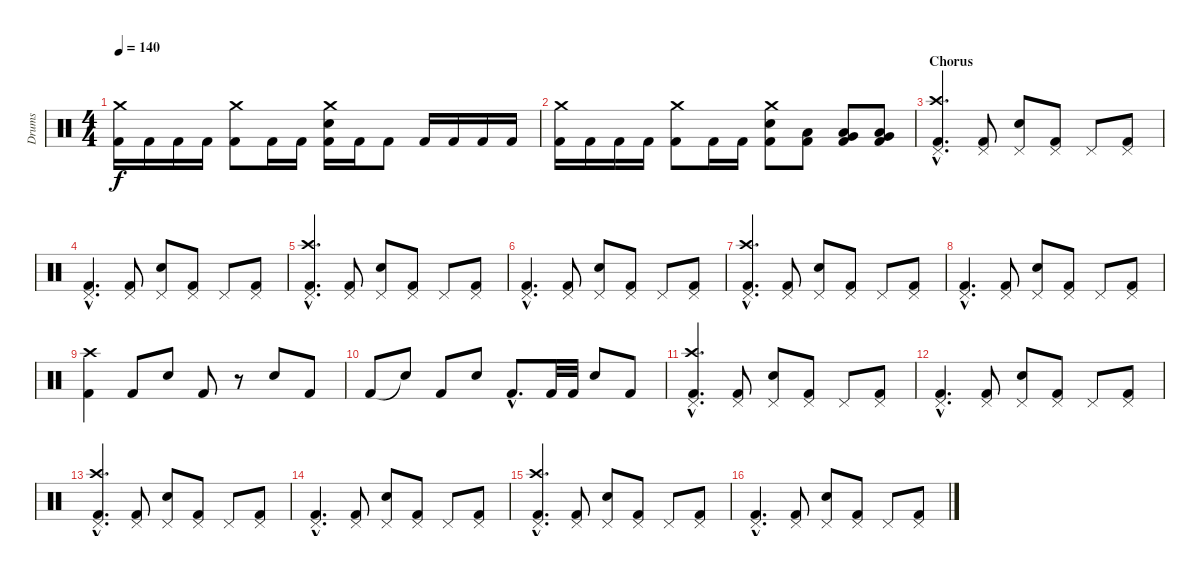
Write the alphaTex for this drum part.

\track ("Drums" "Drums") {instrument percussion}
\staff {score}
\articulation defaults
\ts (4 4)
\tempo 140
\clef neutral
\ks c
("Crash medium (hit)" "Kick (hit) 2").16{dy f} "Kick (hit) 2".16 "Kick (hit) 2".16 "Kick (hit) 2".16 ("Crash medium (hit)" "Kick (hit) 2").8 "Kick (hit) 2".16 "Kick (hit) 2".16 ("Crash medium (hit)" "Electric Snare (hit)" "Kick (hit) 2").16 "Kick (hit) 2".16 "Kick (hit) 2".8 "Kick (hit) 2".16 "Kick (hit) 2".16 "Kick (hit) 2".16 "Kick (hit) 2".16 |
("Crash medium (hit)" "Kick (hit) 2").16 "Kick (hit) 2".16 "Kick (hit) 2".16 "Kick (hit) 2".16 ("Crash medium (hit)" "Kick (hit) 2").8 "Kick (hit) 2".16 "Kick (hit) 2".16 ("Crash medium (hit)" "Electric Snare (hit)" "Kick (hit) 2").8 ("Low Floor Tom (hit)" "Kick (hit) 2").8 ("Very Low Tom (hit)" "Low Tom (hit)" "Kick (hit) 2").8 ("Very Low Tom (hit)" "Low Tom (hit)" "Kick (hit) 2").8 |
\section ("" "Chorus")
("Crash high (hit)"{hac} "Pedal Hi-Hat (hit)"{hac} "Kick (hit) 2"{hac}).4{d} ("Pedal Hi-Hat (hit)" "Kick (hit) 2").8 ("Pedal Hi-Hat (hit)" "Electric Snare (hit)").8 ("Pedal Hi-Hat (hit)" "Kick (hit) 2").8 "Pedal Hi-Hat (hit)".8 ("Pedal Hi-Hat (hit)" "Kick (hit) 2").8 |
("Pedal Hi-Hat (hit)"{hac} "Kick (hit) 2"{hac}).4{d} ("Pedal Hi-Hat (hit)" "Kick (hit) 2").8 ("Pedal Hi-Hat (hit)" "Electric Snare (hit)").8 ("Pedal Hi-Hat (hit)" "Kick (hit) 2").8 "Pedal Hi-Hat (hit)".8 ("Pedal Hi-Hat (hit)" "Kick (hit) 2").8 |
("Crash high (hit)"{hac} "Pedal Hi-Hat (hit)"{hac} "Kick (hit) 2"{hac}).4{d} ("Pedal Hi-Hat (hit)" "Kick (hit) 2").8 ("Pedal Hi-Hat (hit)" "Electric Snare (hit)").8 ("Pedal Hi-Hat (hit)" "Kick (hit) 2").8 "Pedal Hi-Hat (hit)".8 ("Pedal Hi-Hat (hit)" "Kick (hit) 2").8 |
("Pedal Hi-Hat (hit)"{hac} "Kick (hit) 2"{hac}).4{d} ("Pedal Hi-Hat (hit)" "Kick (hit) 2").8 ("Pedal Hi-Hat (hit)" "Electric Snare (hit)").8 ("Pedal Hi-Hat (hit)" "Kick (hit) 2").8 "Pedal Hi-Hat (hit)".8 ("Pedal Hi-Hat (hit)" "Kick (hit) 2").8 |
("Crash high (hit)"{hac} "Pedal Hi-Hat (hit)"{hac} "Kick (hit) 2"{hac}).4{d} ("Pedal Hi-Hat (hit)" "Kick (hit) 2").8 ("Pedal Hi-Hat (hit)" "Electric Snare (hit)").8 ("Pedal Hi-Hat (hit)" "Kick (hit) 2").8 "Pedal Hi-Hat (hit)".8 ("Pedal Hi-Hat (hit)" "Kick (hit) 2").8 |
("Pedal Hi-Hat (hit)"{hac} "Kick (hit) 2"{hac}).4{d} ("Pedal Hi-Hat (hit)" "Kick (hit) 2").8 ("Pedal Hi-Hat (hit)" "Electric Snare (hit)").8 ("Pedal Hi-Hat (hit)" "Kick (hit) 2").8 "Pedal Hi-Hat (hit)".8 ("Pedal Hi-Hat (hit)" "Kick (hit) 2").8 |
("Crash high (hit)" "Kick (hit) 2").4 "Kick (hit) 2".8 "Electric Snare (hit)".8 "Kick (hit) 2".8 r.8 "Electric Snare (hit)".8 "Kick (hit) 2".8 |
"Kick (hit) 2".8 "Snare (hit)"{t}.8 "Kick (hit) 2".8 "Electric Snare (hit)".8 "Kick (hit) 2"{hac}.8{d} "Kick (hit) 2".32 "Kick (hit) 2".32 "Electric Snare (hit)".8 "Kick (hit) 2".8 |
("Crash high (hit)"{hac} "Pedal Hi-Hat (hit)"{hac} "Kick (hit) 2"{hac}).4{d} ("Pedal Hi-Hat (hit)" "Kick (hit) 2").8 ("Pedal Hi-Hat (hit)" "Electric Snare (hit)").8 ("Pedal Hi-Hat (hit)" "Kick (hit) 2").8 "Pedal Hi-Hat (hit)".8 ("Pedal Hi-Hat (hit)" "Kick (hit) 2").8 |
("Pedal Hi-Hat (hit)"{hac} "Kick (hit) 2"{hac}).4{d} ("Pedal Hi-Hat (hit)" "Kick (hit) 2").8 ("Pedal Hi-Hat (hit)" "Electric Snare (hit)").8 ("Pedal Hi-Hat (hit)" "Kick (hit) 2").8 "Pedal Hi-Hat (hit)".8 ("Pedal Hi-Hat (hit)" "Kick (hit) 2").8 |
("Crash high (hit)"{hac} "Pedal Hi-Hat (hit)"{hac} "Kick (hit) 2"{hac}).4{d} ("Pedal Hi-Hat (hit)" "Kick (hit) 2").8 ("Pedal Hi-Hat (hit)" "Electric Snare (hit)").8 ("Pedal Hi-Hat (hit)" "Kick (hit) 2").8 "Pedal Hi-Hat (hit)".8 ("Pedal Hi-Hat (hit)" "Kick (hit) 2").8 |
("Pedal Hi-Hat (hit)"{hac} "Kick (hit) 2"{hac}).4{d} ("Pedal Hi-Hat (hit)" "Kick (hit) 2").8 ("Pedal Hi-Hat (hit)" "Electric Snare (hit)").8 ("Pedal Hi-Hat (hit)" "Kick (hit) 2").8 "Pedal Hi-Hat (hit)".8 ("Pedal Hi-Hat (hit)" "Kick (hit) 2").8 |
("Crash high (hit)"{hac} "Pedal Hi-Hat (hit)"{hac} "Kick (hit) 2"{hac}).4{d} ("Pedal Hi-Hat (hit)" "Kick (hit) 2").8 ("Pedal Hi-Hat (hit)" "Electric Snare (hit)").8 ("Pedal Hi-Hat (hit)" "Kick (hit) 2").8 "Pedal Hi-Hat (hit)".8 ("Pedal Hi-Hat (hit)" "Kick (hit) 2").8 |
("Pedal Hi-Hat (hit)"{hac} "Kick (hit) 2"{hac}).4{d} ("Pedal Hi-Hat (hit)" "Kick (hit) 2").8 ("Pedal Hi-Hat (hit)" "Electric Snare (hit)").8 ("Pedal Hi-Hat (hit)" "Kick (hit) 2").8 "Pedal Hi-Hat (hit)".8 ("Pedal Hi-Hat (hit)" "Kick (hit) 2").8
